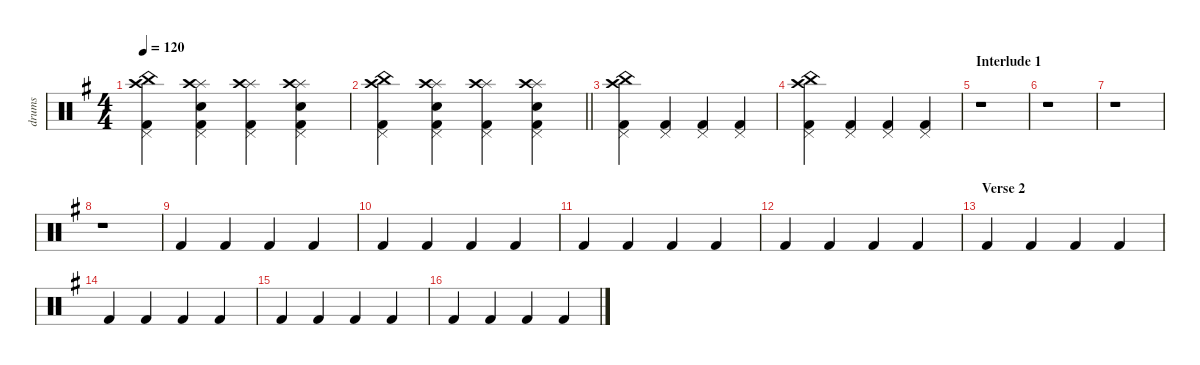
\defaultSystemsLayout 4
\hideDynamics
\bracketExtendMode nobrackets
\otherSystemsTrackNameOrientation horizontal
\track ("drums" "drums") {instrument percussion}
\staff {score}
\articulation defaults
\ts (4 4)
\tempo 120
\clef neutral
\scale
1.07945
\ks eminor
("Kick (hit) 2"{acc forcenatural} "China (hit)"{acc forcenatural} "Crash high (hit)"{acc forcenatural} "Pedal Hi-Hat (hit)"{acc forcenatural}).4{dy mf beam Down} ("Kick (hit) 2"{acc forcenatural} "Pedal Hi-Hat (hit)"{acc forcenatural} "Snare (hit) 2"{acc forcenatural} "Splash (hit)"{acc forcenatural} "Crash high (hit)"{acc forcenatural}).4{beam Down} ("Kick (hit) 2"{acc forcenatural} "Pedal Hi-Hat (hit)"{acc forcenatural} "Splash (hit)"{acc forcenatural} "Crash high (hit)"{acc forcenatural}).4{beam Down} ("Kick (hit) 2"{acc forcenatural} "Pedal Hi-Hat (hit)"{acc forcenatural} "Snare (hit) 2"{acc forcenatural} "Splash (hit)"{acc forcenatural} "Crash high (hit)"{acc forcenatural}).4{beam Down} |
\scale
0.973518
\barLineRight lightlight
("Kick (hit) 2"{acc forcenatural} "China (hit)"{acc forcenatural} "Crash high (hit)"{acc forcenatural} "Pedal Hi-Hat (hit)"{acc forcenatural}).4{beam Down} ("Kick (hit) 2"{acc forcenatural} "Pedal Hi-Hat (hit)"{acc forcenatural} "Snare (hit) 2"{acc forcenatural} "Splash (hit)"{acc forcenatural} "Crash high (hit)"{acc forcenatural}).4{beam Down} ("Kick (hit) 2"{acc forcenatural} "Pedal Hi-Hat (hit)"{acc forcenatural} "Splash (hit)"{acc forcenatural} "Crash high (hit)"{acc forcenatural}).4{beam Down} ("Kick (hit) 2"{acc forcenatural} "Pedal Hi-Hat (hit)"{acc forcenatural} "Snare (hit) 2"{acc forcenatural} "Splash (hit)"{acc forcenatural} "Crash high (hit)"{acc forcenatural}).4{beam Down} |
\scale
0.973518 ("Kick (hit) 2"{acc forcenatural} "China (hit)"{acc forcenatural} "Crash high (hit)"{acc forcenatural} "Pedal Hi-Hat (hit)"{acc forcenatural}).4{beam Down} ("Kick (hit) 2"{acc forcenatural} "Pedal Hi-Hat (hit)"{acc forcenatural}).4{beam Up} ("Kick (hit) 2"{acc forcenatural} "Pedal Hi-Hat (hit)"{acc forcenatural}).4{beam Up} ("Kick (hit) 2"{acc forcenatural} "Pedal Hi-Hat (hit)"{acc forcenatural}).4{beam Up} |
\scale
0.973518 ("Kick (hit) 2"{acc forcenatural} "China (hit)"{acc forcenatural} "Crash high (hit)"{acc forcenatural} "Pedal Hi-Hat (hit)"{acc forcenatural}).4{beam Down} ("Kick (hit) 2"{acc forcenatural} "Pedal Hi-Hat (hit)"{acc forcenatural}).4{beam Up} ("Kick (hit) 2"{acc forcenatural} "Pedal Hi-Hat (hit)"{acc forcenatural}).4{beam Up} ("Kick (hit) 2"{acc forcenatural} "Pedal Hi-Hat (hit)"{acc forcenatural}).4{beam Up} |
\section ("" "Interlude 1")
\scale
1.07945 r.1{beam Down} |
\scale
0.973518 r.1{beam Down} |
\scale
0.973518 r.1{beam Down} |
\scale
0.973518 r.1{beam Down} |
\scale
1.07945 "Kick (hit) 2"{acc forcenatural}.4{beam Up} "Kick (hit) 2"{acc forcenatural}.4{beam Up} "Kick (hit) 2"{acc forcenatural}.4{beam Up} "Kick (hit) 2"{acc forcenatural}.4{beam Up} |
\scale
0.973518 "Kick (hit) 2"{acc forcenatural}.4{beam Up} "Kick (hit) 2"{acc forcenatural}.4{beam Up} "Kick (hit) 2"{acc forcenatural}.4{beam Up} "Kick (hit) 2"{acc forcenatural}.4{beam Up} |
\scale
0.973518 "Kick (hit) 2"{acc forcenatural}.4{beam Up} "Kick (hit) 2"{acc forcenatural}.4{beam Up} "Kick (hit) 2"{acc forcenatural}.4{beam Up} "Kick (hit) 2"{acc forcenatural}.4{beam Up} |
\scale
0.973518 "Kick (hit) 2"{acc forcenatural}.4{beam Up} "Kick (hit) 2"{acc forcenatural}.4{beam Up} "Kick (hit) 2"{acc forcenatural}.4{beam Up} "Kick (hit) 2"{acc forcenatural}.4{beam Up} |
\section ("" "Verse 2")
\scale
1.07945 "Kick (hit) 2"{acc forcenatural}.4{beam Up} "Kick (hit) 2"{acc forcenatural}.4{beam Up} "Kick (hit) 2"{acc forcenatural}.4{beam Up} "Kick (hit) 2"{acc forcenatural}.4{beam Up} |
\scale
0.973518 "Kick (hit) 2"{acc forcenatural}.4{beam Up} "Kick (hit) 2"{acc forcenatural}.4{beam Up} "Kick (hit) 2"{acc forcenatural}.4{beam Up} "Kick (hit) 2"{acc forcenatural}.4{beam Up} |
\scale
0.973518 "Kick (hit) 2"{acc forcenatural}.4{beam Up} "Kick (hit) 2"{acc forcenatural}.4{beam Up} "Kick (hit) 2"{acc forcenatural}.4{beam Up} "Kick (hit) 2"{acc forcenatural}.4{beam Up} |
\scale
0.973518 "Kick (hit) 2"{acc forcenatural}.4{beam Up} "Kick (hit) 2"{acc forcenatural}.4{beam Up} "Kick (hit) 2"{acc forcenatural}.4{beam Up} "Kick (hit) 2"{acc forcenatural}.4{beam Up}
